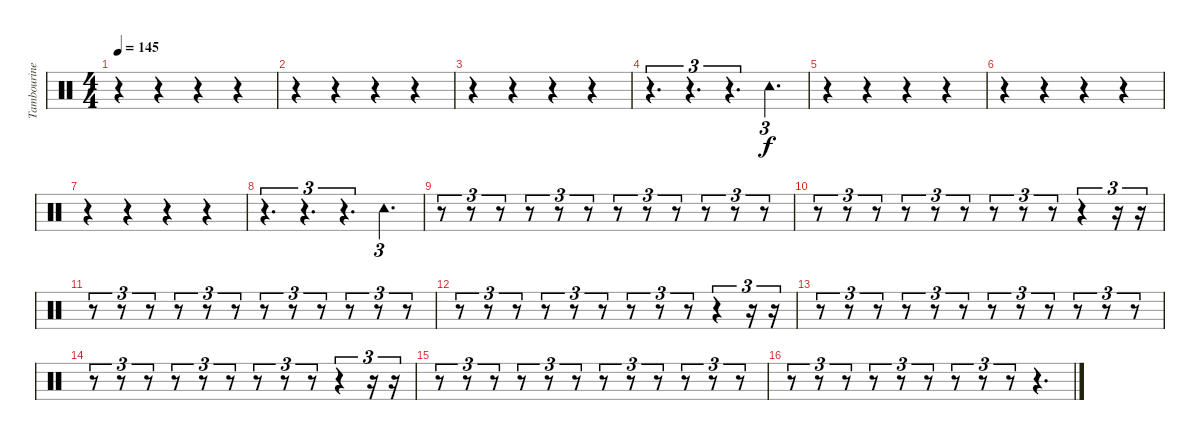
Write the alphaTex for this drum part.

\track ("Tambourine" "Tambourine") {instrument percussion}
\staff {score}
\articulation defaults
\ts (4 4)
\tempo 145
\clef neutral
\ks c
r.4{dy f} r.4 r.4 r.4 |
r.4 r.4 r.4 r.4 |
r.4 r.4 r.4 r.4 |
r.4{d tu (3 2)} r.4{d tu (3 2)} r.4{d tu (3 2)} "Tambourine (hit)".4{d tu (3 2)} |
r.4 r.4 r.4 r.4 |
r.4 r.4 r.4 r.4 |
r.4 r.4 r.4 r.4 |
r.4{d tu (3 2)} r.4{d tu (3 2)} r.4{d tu (3 2)} "Tambourine (hit)".4{d tu (3 2)} |
r.8{tu (3 2)} r.8{tu (3 2)} r.8{tu (3 2)} r.8{tu (3 2)} r.8{tu (3 2)} r.8{tu (3 2)} r.8{tu (3 2)} r.8{tu (3 2)} r.8{tu (3 2)} r.8{tu (3 2)} r.8{tu (3 2)} r.8{tu (3 2)} |
r.8{tu (3 2)} r.8{tu (3 2)} r.8{tu (3 2)} r.8{tu (3 2)} r.8{tu (3 2)} r.8{tu (3 2)} r.8{tu (3 2)} r.8{tu (3 2)} r.8{tu (3 2)} r.4{tu (3 2)} r.16{tu (3 2)} r.16{tu (3 2)} |
r.8{tu (3 2)} r.8{tu (3 2)} r.8{tu (3 2)} r.8{tu (3 2)} r.8{tu (3 2)} r.8{tu (3 2)} r.8{tu (3 2)} r.8{tu (3 2)} r.8{tu (3 2)} r.8{tu (3 2)} r.8{tu (3 2)} r.8{tu (3 2)} |
r.8{tu (3 2)} r.8{tu (3 2)} r.8{tu (3 2)} r.8{tu (3 2)} r.8{tu (3 2)} r.8{tu (3 2)} r.8{tu (3 2)} r.8{tu (3 2)} r.8{tu (3 2)} r.4{tu (3 2)} r.16{tu (3 2)} r.16{tu (3 2)} |
r.8{tu (3 2)} r.8{tu (3 2)} r.8{tu (3 2)} r.8{tu (3 2)} r.8{tu (3 2)} r.8{tu (3 2)} r.8{tu (3 2)} r.8{tu (3 2)} r.8{tu (3 2)} r.8{tu (3 2)} r.8{tu (3 2)} r.8{tu (3 2)} |
r.8{tu (3 2)} r.8{tu (3 2)} r.8{tu (3 2)} r.8{tu (3 2)} r.8{tu (3 2)} r.8{tu (3 2)} r.8{tu (3 2)} r.8{tu (3 2)} r.8{tu (3 2)} r.4{tu (3 2)} r.16{tu (3 2)} r.16{tu (3 2)} |
r.8{tu (3 2)} r.8{tu (3 2)} r.8{tu (3 2)} r.8{tu (3 2)} r.8{tu (3 2)} r.8{tu (3 2)} r.8{tu (3 2)} r.8{tu (3 2)} r.8{tu (3 2)} r.8{tu (3 2)} r.8{tu (3 2)} r.8{tu (3 2)} |
r.8{tu (3 2)} r.8{tu (3 2)} r.8{tu (3 2)} r.8{tu (3 2)} r.8{tu (3 2)} r.8{tu (3 2)} r.8{tu (3 2)} r.8{tu (3 2)} r.8{tu (3 2)} r.4{d tu (3 2)}
